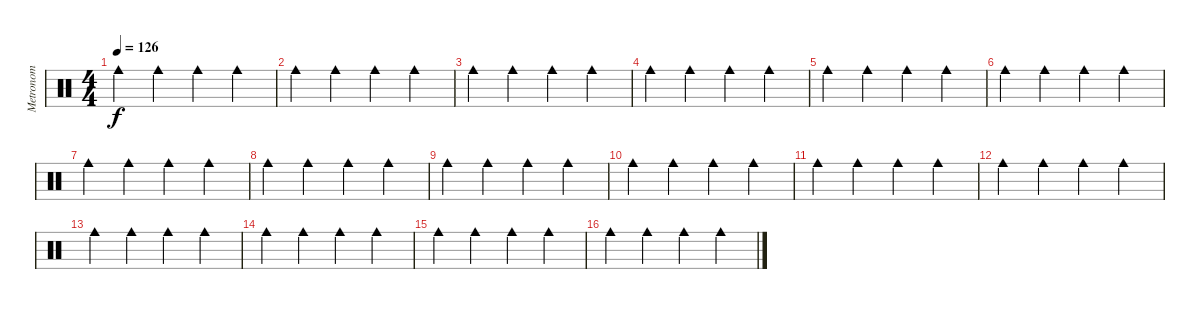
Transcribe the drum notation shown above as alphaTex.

\track ("Metronom" "Metronom") {instrument percussion}
\staff {score}
\articulation defaults
\ts (4 4)
\tempo 126
\clef neutral
\ks c "Cowbell medium (hit)".4{dy f} "Cowbell medium (hit)".4 "Cowbell medium (hit)".4 "Cowbell medium (hit)".4
|
"Cowbell medium (hit)".4 "Cowbell medium (hit)".4 "Cowbell medium (hit)".4 "Cowbell medium (hit)".4 |
"Cowbell medium (hit)".4 "Cowbell medium (hit)".4 "Cowbell medium (hit)".4 "Cowbell medium (hit)".4 |
"Cowbell medium (hit)".4 "Cowbell medium (hit)".4 "Cowbell medium (hit)".4 "Cowbell medium (hit)".4 |
"Cowbell medium (hit)".4 "Cowbell medium (hit)".4 "Cowbell medium (hit)".4 "Cowbell medium (hit)".4 |
"Cowbell medium (hit)".4 "Cowbell medium (hit)".4 "Cowbell medium (hit)".4 "Cowbell medium (hit)".4 |
"Cowbell medium (hit)".4 "Cowbell medium (hit)".4 "Cowbell medium (hit)".4 "Cowbell medium (hit)".4 |
"Cowbell medium (hit)".4 "Cowbell medium (hit)".4 "Cowbell medium (hit)".4 "Cowbell medium (hit)".4 |
"Cowbell medium (hit)".4 "Cowbell medium (hit)".4 "Cowbell medium (hit)".4 "Cowbell medium (hit)".4 |
"Cowbell medium (hit)".4 "Cowbell medium (hit)".4 "Cowbell medium (hit)".4 "Cowbell medium (hit)".4 |
"Cowbell medium (hit)".4 "Cowbell medium (hit)".4 "Cowbell medium (hit)".4 "Cowbell medium (hit)".4 |
"Cowbell medium (hit)".4 "Cowbell medium (hit)".4 "Cowbell medium (hit)".4 "Cowbell medium (hit)".4 |
"Cowbell medium (hit)".4 "Cowbell medium (hit)".4 "Cowbell medium (hit)".4 "Cowbell medium (hit)".4 |
"Cowbell medium (hit)".4 "Cowbell medium (hit)".4 "Cowbell medium (hit)".4 "Cowbell medium (hit)".4 |
"Cowbell medium (hit)".4 "Cowbell medium (hit)".4 "Cowbell medium (hit)".4 "Cowbell medium (hit)".4 |
"Cowbell medium (hit)".4 "Cowbell medium (hit)".4 "Cowbell medium (hit)".4 "Cowbell medium (hit)".4
